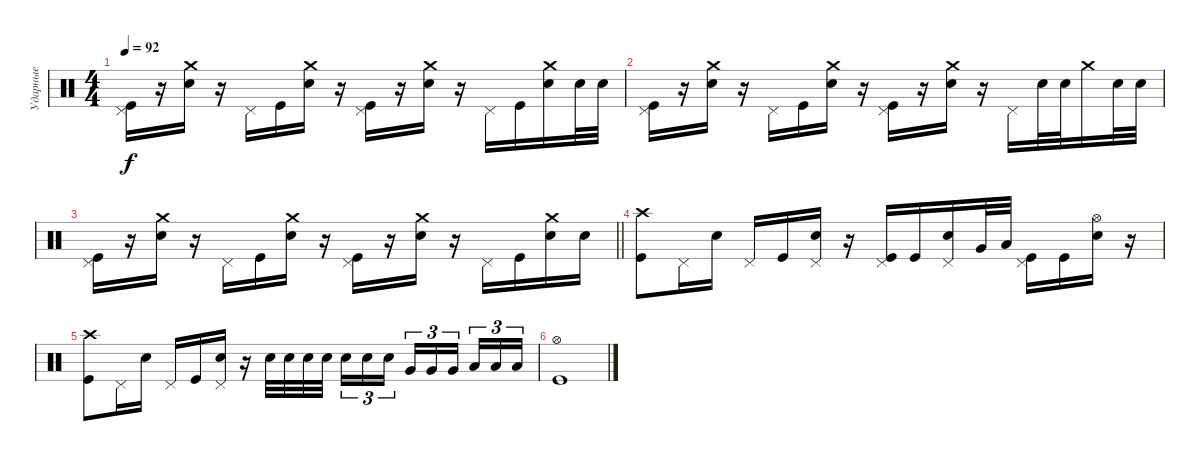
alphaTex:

\track ("Ударные" "Ударные") {instrument percussion}
\staff {score}
\articulation defaults
\ts (4 4)
\tempo 92
\clef neutral
\ks c
("Kick (hit)" "Pedal Hi-Hat (hit)").16{dy f} r.16 ("Snare (hit) 2" "Crash medium (hit)").16 r.16 "Pedal Hi-Hat (hit)".16 "Kick (hit)".16 ("Snare (hit) 2" "Crash medium (hit)").16 r.16 ("Kick (hit)" "Pedal Hi-Hat (hit)").16 r.16 ("Snare (hit) 2" "Crash medium (hit)").16 r.16 "Pedal Hi-Hat (hit)".16 "Kick (hit)".16 ("Snare (hit) 2" "Crash medium (hit)").16 "Snare (hit) 2".32 "Snare (hit) 2".32 |
("Kick (hit)" "Pedal Hi-Hat (hit)").16 r.16 ("Snare (hit) 2" "Crash medium (hit)").16 r.16 "Pedal Hi-Hat (hit)".16 "Kick (hit)".16 ("Snare (hit) 2" "Crash medium (hit)").16 r.16 ("Kick (hit)" "Pedal Hi-Hat (hit)").16 r.16 ("Snare (hit) 2" "Crash medium (hit)").16 r.16 "Pedal Hi-Hat (hit)".16 "Snare (hit) 2".32 "Snare (hit) 2".32 "Crash medium (hit)".16 "Snare (hit) 2".32 "Snare (hit) 2".32 |
\barLineRight lightlight
("Kick (hit)" "Pedal Hi-Hat (hit)").16 r.16 ("Snare (hit) 2" "Crash medium (hit)").16 r.16 "Pedal Hi-Hat (hit)".16 "Kick (hit)".16 ("Snare (hit) 2" "Crash medium (hit)").16 r.16 ("Kick (hit)" "Pedal Hi-Hat (hit)").16 r.16 ("Snare (hit) 2" "Crash medium (hit)").16 r.16 "Pedal Hi-Hat (hit)".16 "Kick (hit)".16 ("Snare (hit) 2" "Crash medium (hit)").16 "Snare (hit) 2".16 |
("Kick (hit)" "Crash high (hit)").8 "Pedal Hi-Hat (hit)".16 "Snare (hit) 2".16 "Pedal Hi-Hat (hit)".16 "Kick (hit)".16 ("Snare (hit) 2" "Pedal Hi-Hat (hit)").16 r.16 ("Kick (hit)" "Pedal Hi-Hat (hit)").16 "Kick (hit)".16 ("Snare (hit) 2" "Pedal Hi-Hat (hit)").16 "Very Low Tom (hit)".32 "Low Floor Tom (hit)".32 ("Kick (hit)" "Pedal Hi-Hat (hit)").16 "Kick (hit)".16 ("Snare (hit) 2" "Hi-Hat (open)").16 r.16 |
("Kick (hit)" "Crash high (hit)").8 "Pedal Hi-Hat (hit)".16 "Snare (hit) 2".16 "Pedal Hi-Hat (hit)".16 "Kick (hit)".16 ("Snare (hit) 2" "Pedal Hi-Hat (hit)").16 r.16 "Snare (hit) 2".32 "Snare (hit) 2".32 "Snare (hit) 2".32 "Snare (hit) 2".32{beam splitsecondary} "Snare (hit) 2".16{tu (3 2)} "Snare (hit) 2".16{tu (3 2)} "Snare (hit) 2".16{tu (3 2)} "Very Low Tom (hit)".16{tu (3 2)} "Very Low Tom (hit)".16{tu (3 2)} "Very Low Tom (hit)".16{tu (3 2) beam splitsecondary} "Low Floor Tom (hit)".16{tu (3 2)} "Low Floor Tom (hit)".16{tu (3 2)} "Low Floor Tom (hit)".16{tu (3 2)} |
("Kick (hit)" "Hi-Hat (open)").1
